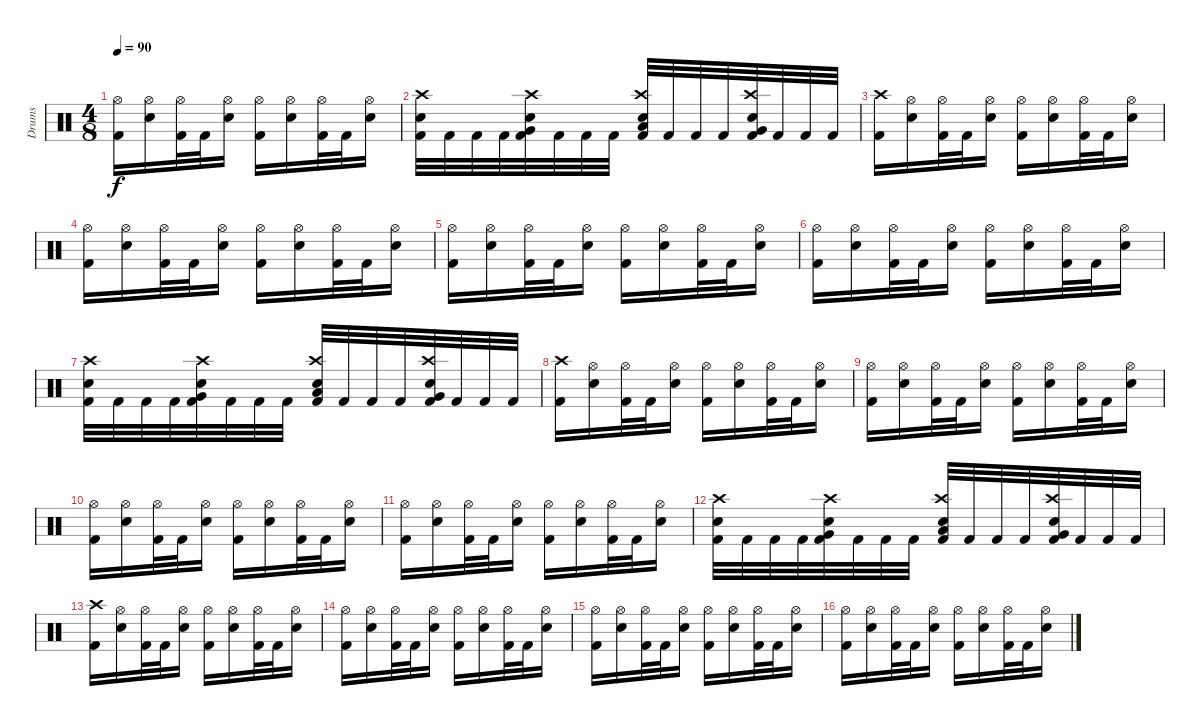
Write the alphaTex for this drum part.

\track ("Drums" "Drums") {instrument percussion}
\staff {score}
\articulation defaults
\ts (4 8)
\tempo 90
\clef neutral
\ks c
("Kick (hit) 2" "Hi-Hat (open)").16{dy f} ("Electric Snare (hit)" "Hi-Hat (open)").16 ("Kick (hit) 2" "Hi-Hat (open)").32 "Kick (hit) 2".32 ("Electric Snare (hit)" "Hi-Hat (open)").16 ("Kick (hit) 2" "Hi-Hat (open)").16 ("Electric Snare (hit)" "Hi-Hat (open)").16 ("Kick (hit) 2" "Hi-Hat (open)").32 "Kick (hit) 2".32 ("Electric Snare (hit)" "Hi-Hat (open)").16 |
("Kick (hit) 2" "Electric Snare (hit)" "Crash high (hit)").32 "Kick (hit) 2".32 "Kick (hit) 2".32 "Kick (hit) 2".32 ("Electric Snare (hit)" "Very Low Tom (hit)" "Kick (hit) 2" "Crash high (hit)").32 "Kick (hit) 2".32 "Kick (hit) 2".32 "Kick (hit) 2".32 ("Electric Snare (hit)" "Low Floor Tom (hit)" "Kick (hit) 2" "Crash high (hit)").32 "Kick (hit) 2".32 "Kick (hit) 2".32 "Kick (hit) 2".32 ("Electric Snare (hit)" "Very Low Tom (hit)" "Kick (hit) 2" "Crash high (hit)").32 "Kick (hit) 2".32 "Kick (hit) 2".32 "Kick (hit) 2".32 |
("Kick (hit) 2" "Crash high (hit)").16 ("Electric Snare (hit)" "Hi-Hat (open)").16 ("Kick (hit) 2" "Hi-Hat (open)").32 "Kick (hit) 2".32 ("Electric Snare (hit)" "Hi-Hat (open)").16 ("Kick (hit) 2" "Hi-Hat (open)").16 ("Electric Snare (hit)" "Hi-Hat (open)").16 ("Kick (hit) 2" "Hi-Hat (open)").32 "Kick (hit) 2".32 ("Electric Snare (hit)" "Hi-Hat (open)").16 |
("Kick (hit) 2" "Hi-Hat (open)").16 ("Electric Snare (hit)" "Hi-Hat (open)").16 ("Kick (hit) 2" "Hi-Hat (open)").32 "Kick (hit) 2".32 ("Electric Snare (hit)" "Hi-Hat (open)").16 ("Kick (hit) 2" "Hi-Hat (open)").16 ("Electric Snare (hit)" "Hi-Hat (open)").16 ("Kick (hit) 2" "Hi-Hat (open)").32 "Kick (hit) 2".32 ("Electric Snare (hit)" "Hi-Hat (open)").16 |
("Kick (hit) 2" "Hi-Hat (open)").16 ("Electric Snare (hit)" "Hi-Hat (open)").16 ("Kick (hit) 2" "Hi-Hat (open)").32 "Kick (hit) 2".32 ("Electric Snare (hit)" "Hi-Hat (open)").16 ("Kick (hit) 2" "Hi-Hat (open)").16 ("Electric Snare (hit)" "Hi-Hat (open)").16 ("Kick (hit) 2" "Hi-Hat (open)").32 "Kick (hit) 2".32 ("Electric Snare (hit)" "Hi-Hat (open)").16 |
("Kick (hit) 2" "Hi-Hat (open)").16 ("Electric Snare (hit)" "Hi-Hat (open)").16 ("Kick (hit) 2" "Hi-Hat (open)").32 "Kick (hit) 2".32 ("Electric Snare (hit)" "Hi-Hat (open)").16 ("Kick (hit) 2" "Hi-Hat (open)").16 ("Electric Snare (hit)" "Hi-Hat (open)").16 ("Kick (hit) 2" "Hi-Hat (open)").32 "Kick (hit) 2".32 ("Electric Snare (hit)" "Hi-Hat (open)").16 |
("Kick (hit) 2" "Electric Snare (hit)" "Crash high (hit)").32 "Kick (hit) 2".32 "Kick (hit) 2".32 "Kick (hit) 2".32 ("Electric Snare (hit)" "Very Low Tom (hit)" "Kick (hit) 2" "Crash high (hit)").32 "Kick (hit) 2".32 "Kick (hit) 2".32 "Kick (hit) 2".32 ("Electric Snare (hit)" "Low Floor Tom (hit)" "Kick (hit) 2" "Crash high (hit)").32 "Kick (hit) 2".32 "Kick (hit) 2".32 "Kick (hit) 2".32 ("Electric Snare (hit)" "Very Low Tom (hit)" "Kick (hit) 2" "Crash high (hit)").32 "Kick (hit) 2".32 "Kick (hit) 2".32 "Kick (hit) 2".32 |
("Kick (hit) 2" "Crash high (hit)").16 ("Electric Snare (hit)" "Hi-Hat (open)").16 ("Kick (hit) 2" "Hi-Hat (open)").32 "Kick (hit) 2".32 ("Electric Snare (hit)" "Hi-Hat (open)").16 ("Kick (hit) 2" "Hi-Hat (open)").16 ("Electric Snare (hit)" "Hi-Hat (open)").16 ("Kick (hit) 2" "Hi-Hat (open)").32 "Kick (hit) 2".32 ("Electric Snare (hit)" "Hi-Hat (open)").16 |
("Kick (hit) 2" "Hi-Hat (open)").16 ("Electric Snare (hit)" "Hi-Hat (open)").16 ("Kick (hit) 2" "Hi-Hat (open)").32 "Kick (hit) 2".32 ("Electric Snare (hit)" "Hi-Hat (open)").16 ("Kick (hit) 2" "Hi-Hat (open)").16 ("Electric Snare (hit)" "Hi-Hat (open)").16 ("Kick (hit) 2" "Hi-Hat (open)").32 "Kick (hit) 2".32 ("Electric Snare (hit)" "Hi-Hat (open)").16 |
("Kick (hit) 2" "Hi-Hat (open)").16 ("Electric Snare (hit)" "Hi-Hat (open)").16 ("Kick (hit) 2" "Hi-Hat (open)").32 "Kick (hit) 2".32 ("Electric Snare (hit)" "Hi-Hat (open)").16 ("Kick (hit) 2" "Hi-Hat (open)").16 ("Electric Snare (hit)" "Hi-Hat (open)").16 ("Kick (hit) 2" "Hi-Hat (open)").32 "Kick (hit) 2".32 ("Electric Snare (hit)" "Hi-Hat (open)").16 |
("Kick (hit) 2" "Hi-Hat (open)").16 ("Electric Snare (hit)" "Hi-Hat (open)").16 ("Kick (hit) 2" "Hi-Hat (open)").32 "Kick (hit) 2".32 ("Electric Snare (hit)" "Hi-Hat (open)").16 ("Kick (hit) 2" "Hi-Hat (open)").16 ("Electric Snare (hit)" "Hi-Hat (open)").16 ("Kick (hit) 2" "Hi-Hat (open)").32 "Kick (hit) 2".32 ("Electric Snare (hit)" "Hi-Hat (open)").16 |
("Kick (hit) 2" "Electric Snare (hit)" "Crash high (hit)").32 "Kick (hit) 2".32 "Kick (hit) 2".32 "Kick (hit) 2".32 ("Electric Snare (hit)" "Very Low Tom (hit)" "Kick (hit) 2" "Crash high (hit)").32 "Kick (hit) 2".32 "Kick (hit) 2".32 "Kick (hit) 2".32 ("Electric Snare (hit)" "Low Floor Tom (hit)" "Kick (hit) 2" "Crash high (hit)").32 "Kick (hit) 2".32 "Kick (hit) 2".32 "Kick (hit) 2".32 ("Electric Snare (hit)" "Very Low Tom (hit)" "Kick (hit) 2" "Crash high (hit)").32 "Kick (hit) 2".32 "Kick (hit) 2".32 "Kick (hit) 2".32 |
("Kick (hit) 2" "Crash high (hit)").16 ("Electric Snare (hit)" "Hi-Hat (open)").16 ("Kick (hit) 2" "Hi-Hat (open)").32 "Kick (hit) 2".32 ("Electric Snare (hit)" "Hi-Hat (open)").16 ("Kick (hit) 2" "Hi-Hat (open)").16 ("Electric Snare (hit)" "Hi-Hat (open)").16 ("Kick (hit) 2" "Hi-Hat (open)").32 "Kick (hit) 2".32 ("Electric Snare (hit)" "Hi-Hat (open)").16 |
("Kick (hit) 2" "Hi-Hat (open)").16 ("Electric Snare (hit)" "Hi-Hat (open)").16 ("Kick (hit) 2" "Hi-Hat (open)").32 "Kick (hit) 2".32 ("Electric Snare (hit)" "Hi-Hat (open)").16 ("Kick (hit) 2" "Hi-Hat (open)").16 ("Electric Snare (hit)" "Hi-Hat (open)").16 ("Kick (hit) 2" "Hi-Hat (open)").32 "Kick (hit) 2".32 ("Electric Snare (hit)" "Hi-Hat (open)").16 |
("Kick (hit) 2" "Hi-Hat (open)").16 ("Electric Snare (hit)" "Hi-Hat (open)").16 ("Kick (hit) 2" "Hi-Hat (open)").32 "Kick (hit) 2".32 ("Electric Snare (hit)" "Hi-Hat (open)").16 ("Kick (hit) 2" "Hi-Hat (open)").16 ("Electric Snare (hit)" "Hi-Hat (open)").16 ("Kick (hit) 2" "Hi-Hat (open)").32 "Kick (hit) 2".32 ("Electric Snare (hit)" "Hi-Hat (open)").16 |
("Kick (hit) 2" "Hi-Hat (open)").16 ("Electric Snare (hit)" "Hi-Hat (open)").16 ("Kick (hit) 2" "Hi-Hat (open)").32 "Kick (hit) 2".32 ("Electric Snare (hit)" "Hi-Hat (open)").16 ("Kick (hit) 2" "Hi-Hat (open)").16 ("Electric Snare (hit)" "Hi-Hat (open)").16 ("Kick (hit) 2" "Hi-Hat (open)").32 "Kick (hit) 2".32 ("Electric Snare (hit)" "Hi-Hat (open)").16
